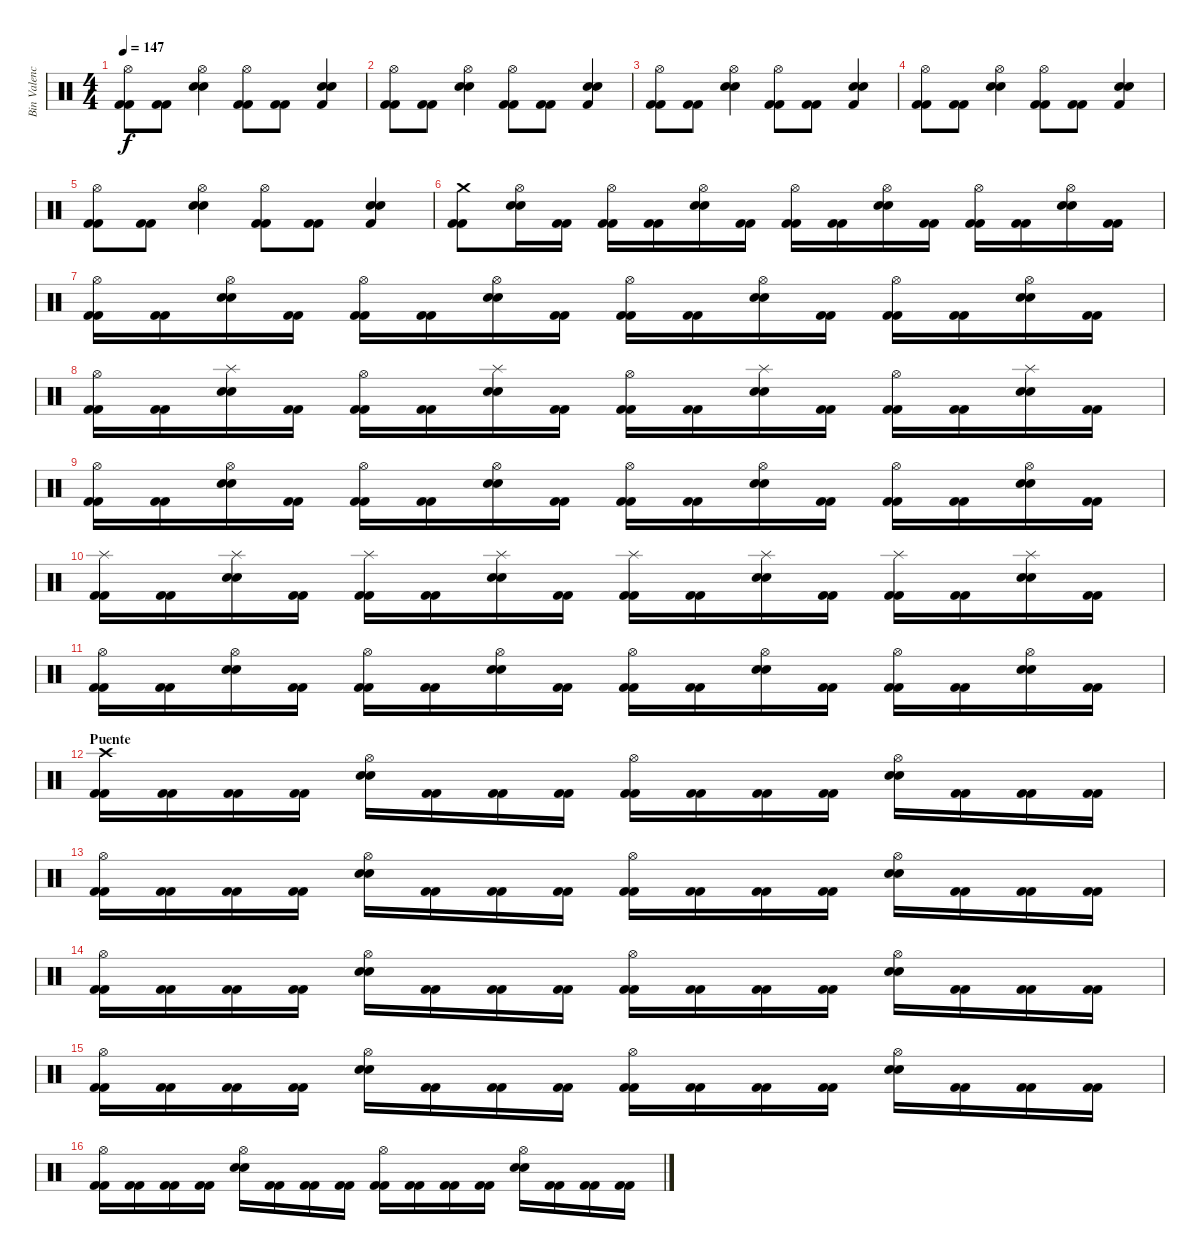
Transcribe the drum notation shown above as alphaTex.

\track ("Bin Valencia (Bateria)" "Bin Valenc") {instrument percussion}
\staff {score}
\articulation defaults
\ts (4 4)
\tempo 147
\clef neutral
\ks c
("Hi-Hat (open)" "Kick (hit) 2" "Kick (hit) 2").8{dy f} ("Kick (hit) 2" "Kick (hit) 2").8 ("Hi-Hat (open)" "Snare (hit) 2" "Snare (hit) 2").4 ("Hi-Hat (open)" "Kick (hit) 2" "Kick (hit) 2").8 ("Kick (hit) 2" "Kick (hit) 2").8 ("Kick (hit) 2" "Snare (hit) 2" "Snare (hit) 2").4 |
("Hi-Hat (open)" "Kick (hit) 2" "Kick (hit) 2").8 ("Kick (hit) 2" "Kick (hit) 2").8 ("Hi-Hat (open)" "Snare (hit) 2" "Snare (hit) 2").4 ("Hi-Hat (open)" "Kick (hit) 2" "Kick (hit) 2").8 ("Kick (hit) 2" "Kick (hit) 2").8 ("Kick (hit) 2" "Snare (hit) 2" "Snare (hit) 2").4 |
("Hi-Hat (open)" "Kick (hit) 2" "Kick (hit) 2").8 ("Kick (hit) 2" "Kick (hit) 2").8 ("Hi-Hat (open)" "Snare (hit) 2" "Snare (hit) 2").4 ("Hi-Hat (open)" "Kick (hit) 2" "Kick (hit) 2").8 ("Kick (hit) 2" "Kick (hit) 2").8 ("Kick (hit) 2" "Snare (hit) 2" "Snare (hit) 2").4 |
("Hi-Hat (open)" "Kick (hit) 2" "Kick (hit) 2").8 ("Kick (hit) 2" "Kick (hit) 2").8 ("Hi-Hat (open)" "Snare (hit) 2" "Snare (hit) 2").4 ("Hi-Hat (open)" "Kick (hit) 2" "Kick (hit) 2").8 ("Kick (hit) 2" "Kick (hit) 2").8 ("Kick (hit) 2" "Snare (hit) 2" "Snare (hit) 2").4 |
("Hi-Hat (open)" "Kick (hit) 2" "Kick (hit) 2").8 ("Kick (hit) 2" "Kick (hit) 2").8 ("Hi-Hat (open)" "Snare (hit) 2" "Snare (hit) 2").4 ("Hi-Hat (open)" "Kick (hit) 2" "Kick (hit) 2").8 ("Kick (hit) 2" "Kick (hit) 2").8 ("Kick (hit) 2" "Snare (hit) 2" "Snare (hit) 2").4 |
("Crash medium (hit)" "Kick (hit) 2" "Kick (hit) 2").8 ("Hi-Hat (open)" "Snare (hit) 2" "Snare (hit) 2").16 ("Kick (hit) 2" "Kick (hit) 2").16 ("Hi-Hat (open)" "Kick (hit) 2" "Kick (hit) 2").16 ("Kick (hit) 2" "Kick (hit) 2").16 ("Hi-Hat (open)" "Snare (hit) 2" "Snare (hit) 2").16 ("Kick (hit) 2" "Kick (hit) 2").16 ("Hi-Hat (open)" "Kick (hit) 2" "Kick (hit) 2").16 ("Kick (hit) 2" "Kick (hit) 2").16 ("Hi-Hat (open)" "Snare (hit) 2" "Snare (hit) 2").16 ("Kick (hit) 2" "Kick (hit) 2").16 ("Hi-Hat (open)" "Kick (hit) 2" "Kick (hit) 2").16 ("Kick (hit) 2" "Kick (hit) 2").16 ("Hi-Hat (open)" "Snare (hit) 2" "Snare (hit) 2").16 ("Kick (hit) 2" "Kick (hit) 2").16 |
("Hi-Hat (open)" "Kick (hit) 2" "Kick (hit) 2").16 ("Kick (hit) 2" "Kick (hit) 2").16 ("Hi-Hat (open)" "Snare (hit) 2" "Snare (hit) 2").16 ("Kick (hit) 2" "Kick (hit) 2").16 ("Hi-Hat (open)" "Kick (hit) 2" "Kick (hit) 2").16 ("Kick (hit) 2" "Kick (hit) 2").16 ("Hi-Hat (open)" "Snare (hit) 2" "Snare (hit) 2").16 ("Kick (hit) 2" "Kick (hit) 2").16 ("Hi-Hat (open)" "Kick (hit) 2" "Kick (hit) 2").16 ("Kick (hit) 2" "Kick (hit) 2").16 ("Hi-Hat (open)" "Snare (hit) 2" "Snare (hit) 2").16 ("Kick (hit) 2" "Kick (hit) 2").16 ("Hi-Hat (open)" "Kick (hit) 2" "Kick (hit) 2").16 ("Kick (hit) 2" "Kick (hit) 2").16 ("Hi-Hat (open)" "Snare (hit) 2" "Snare (hit) 2").16 ("Kick (hit) 2" "Kick (hit) 2").16 |
("Hi-Hat (open)" "Kick (hit) 2" "Kick (hit) 2").16 ("Kick (hit) 2" "Kick (hit) 2").16 ("Splash (hit)" "Snare (hit) 2" "Snare (hit) 2").16 ("Kick (hit) 2" "Kick (hit) 2").16 ("Hi-Hat (open)" "Kick (hit) 2" "Kick (hit) 2").16 ("Kick (hit) 2" "Kick (hit) 2").16 ("Splash (hit)" "Snare (hit) 2" "Snare (hit) 2").16 ("Kick (hit) 2" "Kick (hit) 2").16 ("Hi-Hat (open)" "Kick (hit) 2" "Kick (hit) 2").16 ("Kick (hit) 2" "Kick (hit) 2").16 ("Splash (hit)" "Snare (hit) 2" "Snare (hit) 2").16 ("Kick (hit) 2" "Kick (hit) 2").16 ("Hi-Hat (open)" "Kick (hit) 2" "Kick (hit) 2").16 ("Kick (hit) 2" "Kick (hit) 2").16 ("Splash (hit)" "Snare (hit) 2" "Snare (hit) 2").16 ("Kick (hit) 2" "Kick (hit) 2").16 |
("Hi-Hat (open)" "Kick (hit) 2" "Kick (hit) 2").16 ("Kick (hit) 2" "Kick (hit) 2").16 ("Hi-Hat (open)" "Snare (hit) 2" "Snare (hit) 2").16 ("Kick (hit) 2" "Kick (hit) 2").16 ("Hi-Hat (open)" "Kick (hit) 2" "Kick (hit) 2").16 ("Kick (hit) 2" "Kick (hit) 2").16 ("Hi-Hat (open)" "Snare (hit) 2" "Snare (hit) 2").16 ("Kick (hit) 2" "Kick (hit) 2").16 ("Hi-Hat (open)" "Kick (hit) 2" "Kick (hit) 2").16 ("Kick (hit) 2" "Kick (hit) 2").16 ("Hi-Hat (open)" "Snare (hit) 2" "Snare (hit) 2").16 ("Kick (hit) 2" "Kick (hit) 2").16 ("Hi-Hat (open)" "Kick (hit) 2" "Kick (hit) 2").16 ("Kick (hit) 2" "Kick (hit) 2").16 ("Hi-Hat (open)" "Snare (hit) 2" "Snare (hit) 2").16 ("Kick (hit) 2" "Kick (hit) 2").16 |
("Splash (hit)" "Kick (hit) 2" "Kick (hit) 2").16 ("Kick (hit) 2" "Kick (hit) 2").16 ("Splash (hit)" "Snare (hit) 2" "Snare (hit) 2").16 ("Kick (hit) 2" "Kick (hit) 2").16 ("Splash (hit)" "Kick (hit) 2" "Kick (hit) 2").16 ("Kick (hit) 2" "Kick (hit) 2").16 ("Splash (hit)" "Snare (hit) 2" "Snare (hit) 2").16 ("Kick (hit) 2" "Kick (hit) 2").16 ("Splash (hit)" "Kick (hit) 2" "Kick (hit) 2").16 ("Kick (hit) 2" "Kick (hit) 2").16 ("Splash (hit)" "Snare (hit) 2" "Snare (hit) 2").16 ("Kick (hit) 2" "Kick (hit) 2").16 ("Splash (hit)" "Kick (hit) 2" "Kick (hit) 2").16 ("Kick (hit) 2" "Kick (hit) 2").16 ("Splash (hit)" "Snare (hit) 2" "Snare (hit) 2").16 ("Kick (hit) 2" "Kick (hit) 2").16 |
("Hi-Hat (open)" "Kick (hit) 2" "Kick (hit) 2").16 ("Kick (hit) 2" "Kick (hit) 2").16 ("Hi-Hat (open)" "Snare (hit) 2" "Snare (hit) 2").16 ("Kick (hit) 2" "Kick (hit) 2").16 ("Hi-Hat (open)" "Kick (hit) 2" "Kick (hit) 2").16 ("Kick (hit) 2" "Kick (hit) 2").16 ("Hi-Hat (open)" "Snare (hit) 2" "Snare (hit) 2").16 ("Kick (hit) 2" "Kick (hit) 2").16 ("Hi-Hat (open)" "Kick (hit) 2" "Kick (hit) 2").16 ("Kick (hit) 2" "Kick (hit) 2").16 ("Hi-Hat (open)" "Snare (hit) 2" "Snare (hit) 2").16 ("Kick (hit) 2" "Kick (hit) 2").16 ("Hi-Hat (open)" "Kick (hit) 2" "Kick (hit) 2").16 ("Kick (hit) 2" "Kick (hit) 2").16 ("Hi-Hat (open)" "Snare (hit) 2" "Snare (hit) 2").16 ("Kick (hit) 2" "Kick (hit) 2").16 |
\section ("" "Puente")
("Crash high (hit)" "Kick (hit) 2" "Kick (hit) 2").16 ("Kick (hit) 2" "Kick (hit) 2").16 ("Kick (hit) 2" "Kick (hit) 2").16 ("Kick (hit) 2" "Kick (hit) 2").16 ("Hi-Hat (open)" "Snare (hit) 2" "Snare (hit) 2").16 ("Kick (hit) 2" "Kick (hit) 2").16 ("Kick (hit) 2" "Kick (hit) 2").16 ("Kick (hit) 2" "Kick (hit) 2").16 ("Hi-Hat (open)" "Kick (hit) 2" "Kick (hit) 2").16 ("Kick (hit) 2" "Kick (hit) 2").16 ("Kick (hit) 2" "Kick (hit) 2").16 ("Kick (hit) 2" "Kick (hit) 2").16 ("Hi-Hat (open)" "Snare (hit) 2" "Snare (hit) 2").16 ("Kick (hit) 2" "Kick (hit) 2").16 ("Kick (hit) 2" "Kick (hit) 2").16 ("Kick (hit) 2" "Kick (hit) 2").16 |
("Hi-Hat (open)" "Kick (hit) 2" "Kick (hit) 2").16 ("Kick (hit) 2" "Kick (hit) 2").16 ("Kick (hit) 2" "Kick (hit) 2").16 ("Kick (hit) 2" "Kick (hit) 2").16 ("Hi-Hat (open)" "Snare (hit) 2" "Snare (hit) 2").16 ("Kick (hit) 2" "Kick (hit) 2").16 ("Kick (hit) 2" "Kick (hit) 2").16 ("Kick (hit) 2" "Kick (hit) 2").16 ("Hi-Hat (open)" "Kick (hit) 2" "Kick (hit) 2").16 ("Kick (hit) 2" "Kick (hit) 2").16 ("Kick (hit) 2" "Kick (hit) 2").16 ("Kick (hit) 2" "Kick (hit) 2").16 ("Hi-Hat (open)" "Snare (hit) 2" "Snare (hit) 2").16 ("Kick (hit) 2" "Kick (hit) 2").16 ("Kick (hit) 2" "Kick (hit) 2").16 ("Kick (hit) 2" "Kick (hit) 2").16 |
("Hi-Hat (open)" "Kick (hit) 2" "Kick (hit) 2").16 ("Kick (hit) 2" "Kick (hit) 2").16 ("Kick (hit) 2" "Kick (hit) 2").16 ("Kick (hit) 2" "Kick (hit) 2").16 ("Hi-Hat (open)" "Snare (hit) 2" "Snare (hit) 2").16 ("Kick (hit) 2" "Kick (hit) 2").16 ("Kick (hit) 2" "Kick (hit) 2").16 ("Kick (hit) 2" "Kick (hit) 2").16 ("Hi-Hat (open)" "Kick (hit) 2" "Kick (hit) 2").16 ("Kick (hit) 2" "Kick (hit) 2").16 ("Kick (hit) 2" "Kick (hit) 2").16 ("Kick (hit) 2" "Kick (hit) 2").16 ("Hi-Hat (open)" "Snare (hit) 2" "Snare (hit) 2").16 ("Kick (hit) 2" "Kick (hit) 2").16 ("Kick (hit) 2" "Kick (hit) 2").16 ("Kick (hit) 2" "Kick (hit) 2").16 |
("Hi-Hat (open)" "Kick (hit) 2" "Kick (hit) 2").16 ("Kick (hit) 2" "Kick (hit) 2").16 ("Kick (hit) 2" "Kick (hit) 2").16 ("Kick (hit) 2" "Kick (hit) 2").16 ("Hi-Hat (open)" "Snare (hit) 2" "Snare (hit) 2").16 ("Kick (hit) 2" "Kick (hit) 2").16 ("Kick (hit) 2" "Kick (hit) 2").16 ("Kick (hit) 2" "Kick (hit) 2").16 ("Hi-Hat (open)" "Kick (hit) 2" "Kick (hit) 2").16 ("Kick (hit) 2" "Kick (hit) 2").16 ("Kick (hit) 2" "Kick (hit) 2").16 ("Kick (hit) 2" "Kick (hit) 2").16 ("Hi-Hat (open)" "Snare (hit) 2" "Snare (hit) 2").16 ("Kick (hit) 2" "Kick (hit) 2").16 ("Kick (hit) 2" "Kick (hit) 2").16 ("Kick (hit) 2" "Kick (hit) 2").16 |
("Hi-Hat (open)" "Kick (hit) 2" "Kick (hit) 2").16 ("Kick (hit) 2" "Kick (hit) 2").16 ("Kick (hit) 2" "Kick (hit) 2").16 ("Kick (hit) 2" "Kick (hit) 2").16 ("Hi-Hat (open)" "Snare (hit) 2" "Snare (hit) 2").16 ("Kick (hit) 2" "Kick (hit) 2").16 ("Kick (hit) 2" "Kick (hit) 2").16 ("Kick (hit) 2" "Kick (hit) 2").16 ("Hi-Hat (open)" "Kick (hit) 2" "Kick (hit) 2").16 ("Kick (hit) 2" "Kick (hit) 2").16 ("Kick (hit) 2" "Kick (hit) 2").16 ("Kick (hit) 2" "Kick (hit) 2").16 ("Hi-Hat (open)" "Snare (hit) 2" "Snare (hit) 2").16 ("Kick (hit) 2" "Kick (hit) 2").16 ("Kick (hit) 2" "Kick (hit) 2").16 ("Kick (hit) 2" "Kick (hit) 2").16
